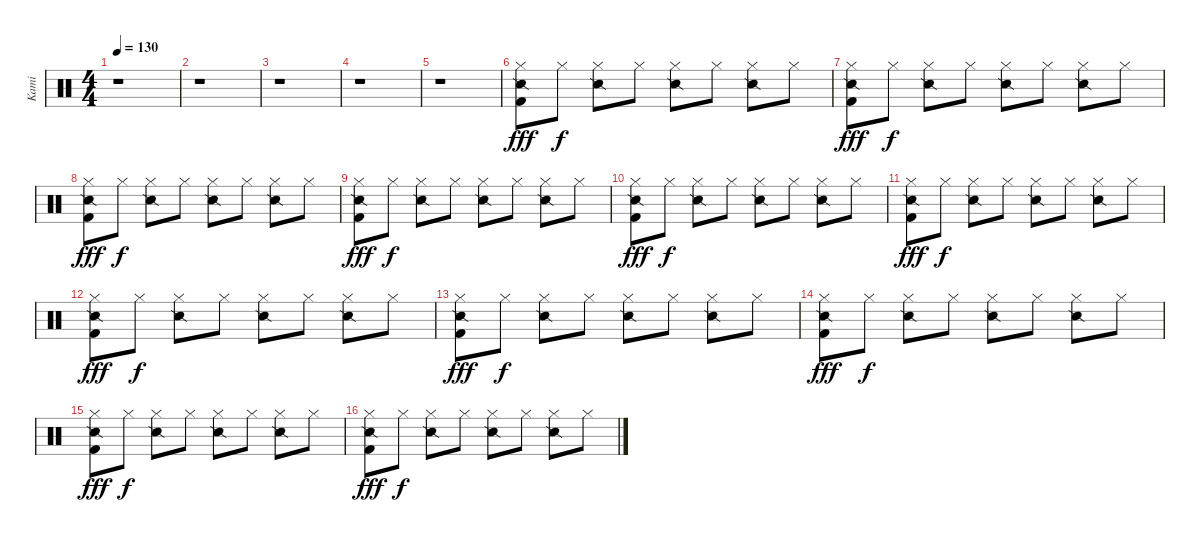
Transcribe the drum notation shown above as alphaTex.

\track ("Kami" "Kami") {instrument percussion}
\staff {score}
\articulation defaults
\ts (4 4)
\tempo 130
\clef neutral
\ks c
r.1{dy fff} |
r.1 |
r.1 |
r.1 |
r.1 |
("Hi-Hat (closed)" "Snare (side stick) 2" "Kick (hit) 2").8 "Hi-Hat (closed)".8{dy f} ("Hi-Hat (closed)" "Snare (side stick) 2").8 "Hi-Hat (closed)".8 ("Hi-Hat (closed)" "Snare (side stick) 2").8 "Hi-Hat (closed)".8 ("Hi-Hat (closed)" "Snare (side stick) 2").8 "Hi-Hat (closed)".8 |
("Hi-Hat (closed)" "Snare (side stick) 2" "Kick (hit) 2").8{dy fff} "Hi-Hat (closed)".8{dy f} ("Hi-Hat (closed)" "Snare (side stick) 2").8 "Hi-Hat (closed)".8 ("Hi-Hat (closed)" "Snare (side stick) 2").8 "Hi-Hat (closed)".8 ("Hi-Hat (closed)" "Snare (side stick) 2").8 "Hi-Hat (closed)".8 |
("Hi-Hat (closed)" "Snare (side stick) 2" "Kick (hit) 2").8{dy fff} "Hi-Hat (closed)".8{dy f} ("Hi-Hat (closed)" "Snare (side stick) 2").8 "Hi-Hat (closed)".8 ("Hi-Hat (closed)" "Snare (side stick) 2").8 "Hi-Hat (closed)".8 ("Hi-Hat (closed)" "Snare (side stick) 2").8 "Hi-Hat (closed)".8 |
("Hi-Hat (closed)" "Snare (side stick) 2" "Kick (hit) 2").8{dy fff} "Hi-Hat (closed)".8{dy f} ("Hi-Hat (closed)" "Snare (side stick) 2").8 "Hi-Hat (closed)".8 ("Hi-Hat (closed)" "Snare (side stick) 2").8 "Hi-Hat (closed)".8 ("Hi-Hat (closed)" "Snare (side stick) 2").8 "Hi-Hat (closed)".8 |
("Hi-Hat (closed)" "Snare (side stick) 2" "Kick (hit) 2").8{dy fff} "Hi-Hat (closed)".8{dy f} ("Hi-Hat (closed)" "Snare (side stick) 2").8 "Hi-Hat (closed)".8 ("Hi-Hat (closed)" "Snare (side stick) 2").8 "Hi-Hat (closed)".8 ("Hi-Hat (closed)" "Snare (side stick) 2").8 "Hi-Hat (closed)".8 |
("Hi-Hat (closed)" "Snare (side stick) 2" "Kick (hit) 2").8{dy fff} "Hi-Hat (closed)".8{dy f} ("Hi-Hat (closed)" "Snare (side stick) 2").8 "Hi-Hat (closed)".8 ("Hi-Hat (closed)" "Snare (side stick) 2").8 "Hi-Hat (closed)".8 ("Hi-Hat (closed)" "Snare (side stick) 2").8 "Hi-Hat (closed)".8 |
("Hi-Hat (closed)" "Snare (side stick) 2" "Kick (hit) 2").8{dy fff} "Hi-Hat (closed)".8{dy f} ("Hi-Hat (closed)" "Snare (side stick) 2").8 "Hi-Hat (closed)".8 ("Hi-Hat (closed)" "Snare (side stick) 2").8 "Hi-Hat (closed)".8 ("Hi-Hat (closed)" "Snare (side stick) 2").8 "Hi-Hat (closed)".8 |
("Hi-Hat (closed)" "Snare (side stick) 2" "Kick (hit) 2").8{dy fff} "Hi-Hat (closed)".8{dy f} ("Hi-Hat (closed)" "Snare (side stick) 2").8 "Hi-Hat (closed)".8 ("Hi-Hat (closed)" "Snare (side stick) 2").8 "Hi-Hat (closed)".8 ("Hi-Hat (closed)" "Snare (side stick) 2").8 "Hi-Hat (closed)".8 |
("Hi-Hat (closed)" "Snare (side stick) 2" "Kick (hit) 2").8{dy fff} "Hi-Hat (closed)".8{dy f} ("Hi-Hat (closed)" "Snare (side stick) 2").8 "Hi-Hat (closed)".8 ("Hi-Hat (closed)" "Snare (side stick) 2").8 "Hi-Hat (closed)".8 ("Hi-Hat (closed)" "Snare (side stick) 2").8 "Hi-Hat (closed)".8 |
("Hi-Hat (closed)" "Snare (side stick) 2" "Kick (hit) 2").8{dy fff} "Hi-Hat (closed)".8{dy f} ("Hi-Hat (closed)" "Snare (side stick) 2").8 "Hi-Hat (closed)".8 ("Hi-Hat (closed)" "Snare (side stick) 2").8 "Hi-Hat (closed)".8 ("Hi-Hat (closed)" "Snare (side stick) 2").8 "Hi-Hat (closed)".8 |
("Hi-Hat (closed)" "Snare (side stick) 2" "Kick (hit) 2").8{dy fff} "Hi-Hat (closed)".8{dy f} ("Hi-Hat (closed)" "Snare (side stick) 2").8 "Hi-Hat (closed)".8 ("Hi-Hat (closed)" "Snare (side stick) 2").8 "Hi-Hat (closed)".8 ("Hi-Hat (closed)" "Snare (side stick) 2").8 "Hi-Hat (closed)".8
